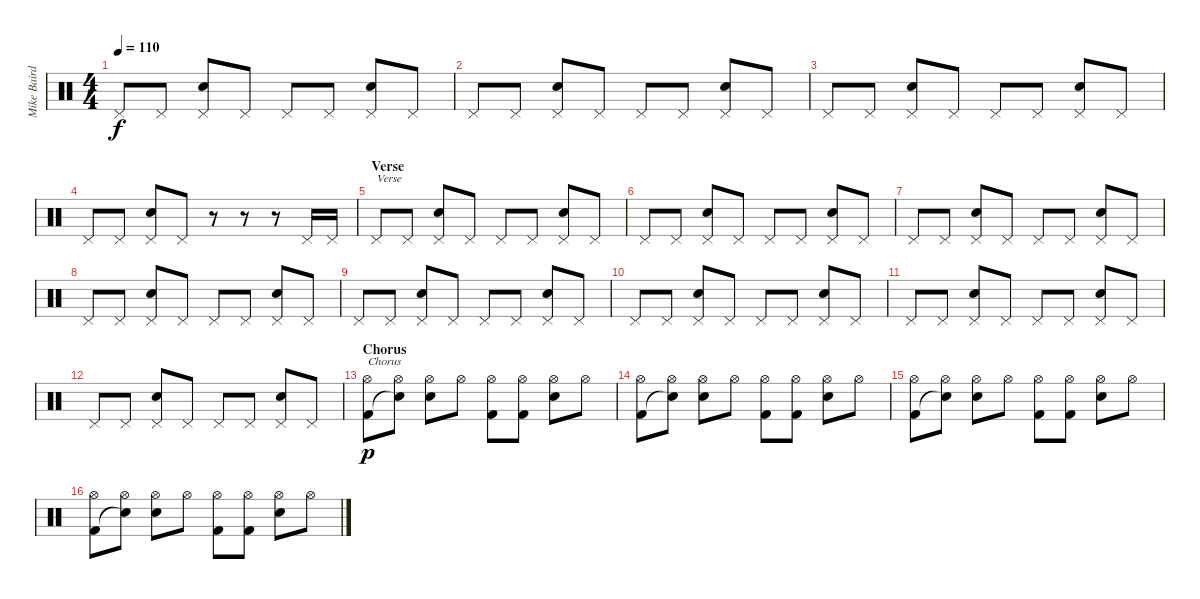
\track ("Mike Baird [drums]" "Mike Baird") {instrument percussion}
\staff {score}
\articulation defaults
\ts (4 4)
\tempo 110
\clef neutral
\ks c "Pedal Hi-Hat (hit)".8{dy f} "Pedal Hi-Hat (hit)".8
("Pedal Hi-Hat (hit)" "Electric Snare (hit)").8 "Pedal Hi-Hat (hit)".8 "Pedal Hi-Hat (hit)".8 "Pedal Hi-Hat (hit)".8 ("Pedal Hi-Hat (hit)" "Electric Snare (hit)").8 "Pedal Hi-Hat (hit)".8 |
"Pedal Hi-Hat (hit)".8 "Pedal Hi-Hat (hit)".8 ("Pedal Hi-Hat (hit)" "Electric Snare (hit)").8 "Pedal Hi-Hat (hit)".8 "Pedal Hi-Hat (hit)".8 "Pedal Hi-Hat (hit)".8 ("Pedal Hi-Hat (hit)" "Electric Snare (hit)").8 "Pedal Hi-Hat (hit)".8 |
"Pedal Hi-Hat (hit)".8 "Pedal Hi-Hat (hit)".8 ("Pedal Hi-Hat (hit)" "Electric Snare (hit)").8 "Pedal Hi-Hat (hit)".8 "Pedal Hi-Hat (hit)".8 "Pedal Hi-Hat (hit)".8 ("Pedal Hi-Hat (hit)" "Electric Snare (hit)").8 "Pedal Hi-Hat (hit)".8 |
"Pedal Hi-Hat (hit)".8 "Pedal Hi-Hat (hit)".8 ("Pedal Hi-Hat (hit)" "Electric Snare (hit)").8 "Pedal Hi-Hat (hit)".8 r.8 r.8 r.8 "Pedal Hi-Hat (hit)".16 "Pedal Hi-Hat (hit)".16 |
\section ("" "Verse")
"Pedal Hi-Hat (hit)".8{txt "Verse"} "Pedal Hi-Hat (hit)".8 ("Pedal Hi-Hat (hit)" "Electric Snare (hit)").8 "Pedal Hi-Hat (hit)".8 "Pedal Hi-Hat (hit)".8 "Pedal Hi-Hat (hit)".8 ("Pedal Hi-Hat (hit)" "Electric Snare (hit)").8 "Pedal Hi-Hat (hit)".8 |
"Pedal Hi-Hat (hit)".8 "Pedal Hi-Hat (hit)".8 ("Pedal Hi-Hat (hit)" "Electric Snare (hit)").8 "Pedal Hi-Hat (hit)".8 "Pedal Hi-Hat (hit)".8 "Pedal Hi-Hat (hit)".8 ("Pedal Hi-Hat (hit)" "Electric Snare (hit)").8 "Pedal Hi-Hat (hit)".8 |
"Pedal Hi-Hat (hit)".8 "Pedal Hi-Hat (hit)".8 ("Pedal Hi-Hat (hit)" "Electric Snare (hit)").8 "Pedal Hi-Hat (hit)".8 "Pedal Hi-Hat (hit)".8 "Pedal Hi-Hat (hit)".8 ("Pedal Hi-Hat (hit)" "Electric Snare (hit)").8 "Pedal Hi-Hat (hit)".8 |
"Pedal Hi-Hat (hit)".8 "Pedal Hi-Hat (hit)".8 ("Pedal Hi-Hat (hit)" "Electric Snare (hit)").8 "Pedal Hi-Hat (hit)".8 "Pedal Hi-Hat (hit)".8 "Pedal Hi-Hat (hit)".8 ("Pedal Hi-Hat (hit)" "Electric Snare (hit)").8 "Pedal Hi-Hat (hit)".8 |
"Pedal Hi-Hat (hit)".8 "Pedal Hi-Hat (hit)".8 ("Pedal Hi-Hat (hit)" "Electric Snare (hit)").8 "Pedal Hi-Hat (hit)".8 "Pedal Hi-Hat (hit)".8 "Pedal Hi-Hat (hit)".8 ("Pedal Hi-Hat (hit)" "Electric Snare (hit)").8 "Pedal Hi-Hat (hit)".8 |
"Pedal Hi-Hat (hit)".8 "Pedal Hi-Hat (hit)".8 ("Pedal Hi-Hat (hit)" "Electric Snare (hit)").8 "Pedal Hi-Hat (hit)".8 "Pedal Hi-Hat (hit)".8 "Pedal Hi-Hat (hit)".8 ("Pedal Hi-Hat (hit)" "Electric Snare (hit)").8 "Pedal Hi-Hat (hit)".8 |
"Pedal Hi-Hat (hit)".8 "Pedal Hi-Hat (hit)".8 ("Pedal Hi-Hat (hit)" "Electric Snare (hit)").8 "Pedal Hi-Hat (hit)".8 "Pedal Hi-Hat (hit)".8 "Pedal Hi-Hat (hit)".8 ("Pedal Hi-Hat (hit)" "Electric Snare (hit)").8 "Pedal Hi-Hat (hit)".8 |
"Pedal Hi-Hat (hit)".8 "Pedal Hi-Hat (hit)".8 ("Pedal Hi-Hat (hit)" "Electric Snare (hit)").8 "Pedal Hi-Hat (hit)".8 "Pedal Hi-Hat (hit)".8 "Pedal Hi-Hat (hit)".8 ("Pedal Hi-Hat (hit)" "Electric Snare (hit)").8 "Pedal Hi-Hat (hit)".8 |
\section ("" "Chorus")
("Hi-Hat (open)" "Kick (hit) 2").8{txt "Chorus" dy p} ("Hi-Hat (open)" "Snare (hit)"{t}).8 ("Hi-Hat (open)" "Electric Snare (hit)").8 "Hi-Hat (open)".8 ("Hi-Hat (open)" "Kick (hit) 2").8 ("Hi-Hat (open)" "Kick (hit) 2").8 ("Hi-Hat (open)" "Electric Snare (hit)").8 "Hi-Hat (open)".8 |
("Hi-Hat (open)" "Kick (hit) 2").8 ("Hi-Hat (open)" "Snare (hit)"{t}).8 ("Hi-Hat (open)" "Electric Snare (hit)").8 "Hi-Hat (open)".8 ("Hi-Hat (open)" "Kick (hit) 2").8 ("Hi-Hat (open)" "Kick (hit) 2").8 ("Hi-Hat (open)" "Electric Snare (hit)").8 "Hi-Hat (open)".8 |
("Hi-Hat (open)" "Kick (hit) 2").8 ("Hi-Hat (open)" "Snare (hit)"{t}).8 ("Hi-Hat (open)" "Electric Snare (hit)").8 "Hi-Hat (open)".8 ("Hi-Hat (open)" "Kick (hit) 2").8 ("Hi-Hat (open)" "Kick (hit) 2").8 ("Hi-Hat (open)" "Electric Snare (hit)").8 "Hi-Hat (open)".8 |
("Hi-Hat (open)" "Kick (hit) 2").8 ("Hi-Hat (open)" "Snare (hit)"{t}).8 ("Hi-Hat (open)" "Electric Snare (hit)").8 "Hi-Hat (open)".8 ("Hi-Hat (open)" "Kick (hit) 2").8 ("Hi-Hat (open)" "Kick (hit) 2").8 ("Hi-Hat (open)" "Electric Snare (hit)").8 "Hi-Hat (open)".8
